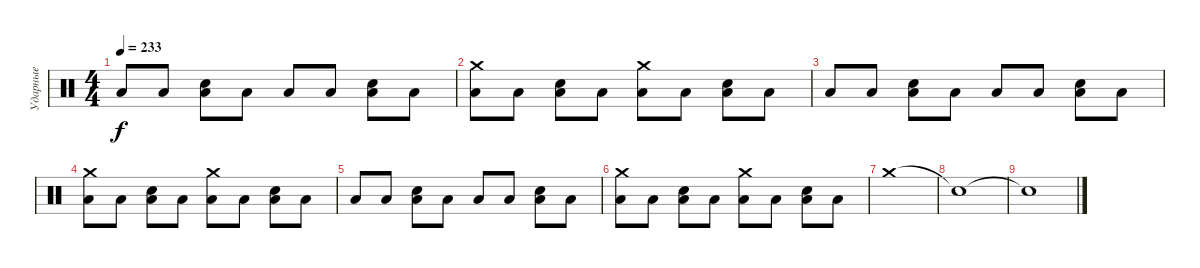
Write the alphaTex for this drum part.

\track ("Ударные" "Ударные") {instrument percussion}
\staff {score}
\articulation defaults
\ts (4 4)
\tempo 233
\clef neutral
\ks c "Low Tom (hit)".8{dy f} "Low Tom (hit)".8
("Electric Snare (hit)" "Low Tom (hit)").8 "Low Tom (hit)".8 "Low Tom (hit)".8 "Low Tom (hit)".8 ("Electric Snare (hit)" "Low Tom (hit)").8 "Low Tom (hit)".8 |
("Crash medium (hit)" "Low Tom (hit)").8 "Low Tom (hit)".8 ("Electric Snare (hit)" "Low Tom (hit)").8 "Low Tom (hit)".8 ("Crash medium (hit)" "Low Tom (hit)").8 "Low Tom (hit)".8 ("Electric Snare (hit)" "Low Tom (hit)").8 "Low Tom (hit)".8 |
"Low Tom (hit)".8 "Low Tom (hit)".8 ("Electric Snare (hit)" "Low Tom (hit)").8 "Low Tom (hit)".8 "Low Tom (hit)".8 "Low Tom (hit)".8 ("Electric Snare (hit)" "Low Tom (hit)").8 "Low Tom (hit)".8 |
("Crash medium (hit)" "Low Tom (hit)").8 "Low Tom (hit)".8 ("Electric Snare (hit)" "Low Tom (hit)").8 "Low Tom (hit)".8 ("Crash medium (hit)" "Low Tom (hit)").8 "Low Tom (hit)".8 ("Electric Snare (hit)" "Low Tom (hit)").8 "Low Tom (hit)".8 |
"Low Tom (hit)".8 "Low Tom (hit)".8 ("Electric Snare (hit)" "Low Tom (hit)").8 "Low Tom (hit)".8 "Low Tom (hit)".8 "Low Tom (hit)".8 ("Electric Snare (hit)" "Low Tom (hit)").8 "Low Tom (hit)".8 |
("Crash medium (hit)" "Low Tom (hit)").8 "Low Tom (hit)".8 ("Electric Snare (hit)" "Low Tom (hit)").8 "Low Tom (hit)".8 ("Crash medium (hit)" "Low Tom (hit)").8 "Low Tom (hit)".8 ("Electric Snare (hit)" "Low Tom (hit)").8 "Low Tom (hit)".8 |
"Crash medium (hit)".1 |
"Snare (hit)"{t}.1 |
"Snare (hit)"{t}.1
